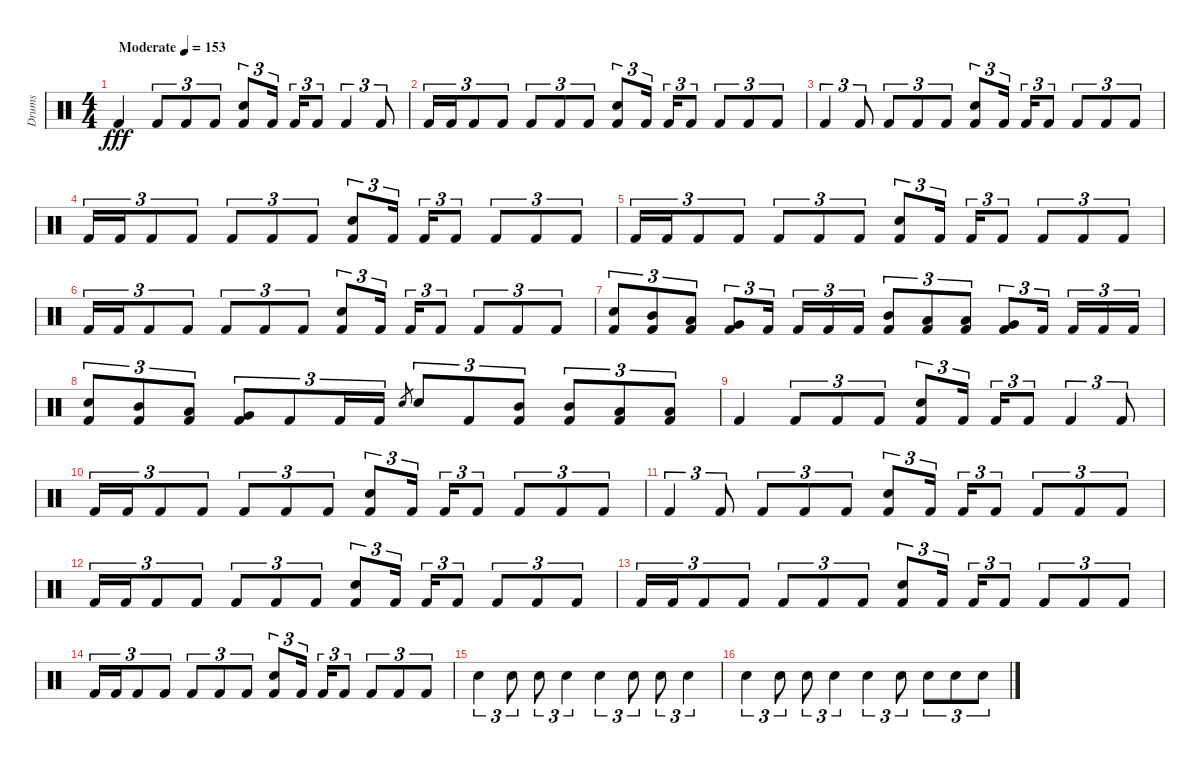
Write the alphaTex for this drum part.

\track ("Drums" "Drums") {instrument percussion}
\staff {score}
\articulation defaults
\ts (4 4)
\tempo (153 "Moderate")
\clef neutral
\ks c "Kick (hit) 2".4{dy fff} "Kick (hit) 2".8{tu (3 2)} "Kick (hit) 2".8{tu (3 2)} "Kick (hit) 2".8{tu (3 2)}
("Electric Snare (hit)" "Kick (hit) 2").8{tu (3 2)} "Kick (hit) 2".16{tu (3 2) beam splitsecondary} "Kick (hit) 2".16{tu (3 2)} "Kick (hit) 2".8{tu (3 2)} "Kick (hit) 2".4{tu (3 2)} "Kick (hit) 2".8{tu (3 2)} |
"Kick (hit) 2".16{tu (3 2)} "Kick (hit) 2".16{tu (3 2)} "Kick (hit) 2".8{tu (3 2)} "Kick (hit) 2".8{tu (3 2)} "Kick (hit) 2".8{tu (3 2)} "Kick (hit) 2".8{tu (3 2)} "Kick (hit) 2".8{tu (3 2)} ("Electric Snare (hit)" "Kick (hit) 2").8{tu (3 2)} "Kick (hit) 2".16{tu (3 2) beam splitsecondary} "Kick (hit) 2".16{tu (3 2)} "Kick (hit) 2".8{tu (3 2)} "Kick (hit) 2".8{tu (3 2)} "Kick (hit) 2".8{tu (3 2)} "Kick (hit) 2".8{tu (3 2)} |
"Kick (hit) 2".4{tu (3 2)} "Kick (hit) 2".8{tu (3 2)} "Kick (hit) 2".8{tu (3 2)} "Kick (hit) 2".8{tu (3 2)} "Kick (hit) 2".8{tu (3 2)} ("Electric Snare (hit)" "Kick (hit) 2").8{tu (3 2)} "Kick (hit) 2".16{tu (3 2) beam splitsecondary} "Kick (hit) 2".16{tu (3 2)} "Kick (hit) 2".8{tu (3 2)} "Kick (hit) 2".8{tu (3 2)} "Kick (hit) 2".8{tu (3 2)} "Kick (hit) 2".8{tu (3 2)} |
"Kick (hit) 2".16{tu (3 2)} "Kick (hit) 2".16{tu (3 2)} "Kick (hit) 2".8{tu (3 2)} "Kick (hit) 2".8{tu (3 2)} "Kick (hit) 2".8{tu (3 2)} "Kick (hit) 2".8{tu (3 2)} "Kick (hit) 2".8{tu (3 2)} ("Electric Snare (hit)" "Kick (hit) 2").8{tu (3 2)} "Kick (hit) 2".16{tu (3 2) beam splitsecondary} "Kick (hit) 2".16{tu (3 2)} "Kick (hit) 2".8{tu (3 2)} "Kick (hit) 2".8{tu (3 2)} "Kick (hit) 2".8{tu (3 2)} "Kick (hit) 2".8{tu (3 2)} |
"Kick (hit) 2".16{tu (3 2)} "Kick (hit) 2".16{tu (3 2)} "Kick (hit) 2".8{tu (3 2)} "Kick (hit) 2".8{tu (3 2)} "Kick (hit) 2".8{tu (3 2)} "Kick (hit) 2".8{tu (3 2)} "Kick (hit) 2".8{tu (3 2)} ("Electric Snare (hit)" "Kick (hit) 2").8{tu (3 2)} "Kick (hit) 2".16{tu (3 2) beam splitsecondary} "Kick (hit) 2".16{tu (3 2)} "Kick (hit) 2".8{tu (3 2)} "Kick (hit) 2".8{tu (3 2)} "Kick (hit) 2".8{tu (3 2)} "Kick (hit) 2".8{tu (3 2)} |
"Kick (hit) 2".16{tu (3 2)} "Kick (hit) 2".16{tu (3 2)} "Kick (hit) 2".8{tu (3 2)} "Kick (hit) 2".8{tu (3 2)} "Kick (hit) 2".8{tu (3 2)} "Kick (hit) 2".8{tu (3 2)} "Kick (hit) 2".8{tu (3 2)} ("Electric Snare (hit)" "Kick (hit) 2").8{tu (3 2)} "Kick (hit) 2".16{tu (3 2) beam splitsecondary} "Kick (hit) 2".16{tu (3 2)} "Kick (hit) 2".8{tu (3 2)} "Kick (hit) 2".8{tu (3 2)} "Kick (hit) 2".8{tu (3 2)} "Kick (hit) 2".8{tu (3 2)} |
("Electric Snare (hit)" "Kick (hit) 2").8{tu (3 2)} ("Mid Tom (hit)" "Kick (hit) 2").8{tu (3 2)} ("Low Tom (hit)" "Kick (hit) 2").8{tu (3 2)} ("Very Low Tom (hit)" "Kick (hit) 2").8{tu (3 2)} "Kick (hit) 2".16{tu (3 2) beam splitsecondary} "Kick (hit) 2".16{tu (3 2)} "Kick (hit) 2".16{tu (3 2)} "Kick (hit) 2".16{tu (3 2)} ("Mid Tom (hit)" "Kick (hit) 2").8{tu (3 2)} ("Low Tom (hit)" "Kick (hit) 2").8{tu (3 2)} ("Low Tom (hit)" "Kick (hit) 2").8{tu (3 2)} ("Very Low Tom (hit)" "Kick (hit) 2").8{tu (3 2)} "Kick (hit) 2".16{tu (3 2) beam splitsecondary} "Kick (hit) 2".16{tu (3 2)} "Kick (hit) 2".16{tu (3 2)} "Kick (hit) 2".16{tu (3 2)} |
("Electric Snare (hit)" "Kick (hit) 2").8{tu (3 2)} ("Mid Tom (hit)" "Kick (hit) 2").8{tu (3 2)} ("Low Tom (hit)" "Kick (hit) 2").8{tu (3 2)} ("Very Low Tom (hit)" "Kick (hit) 2").8{tu (3 2)} "Kick (hit) 2".8{tu (3 2)} "Kick (hit) 2".16{tu (3 2)} "Kick (hit) 2".16{tu (3 2)} "Electric Snare (hit)".8{gr} "Electric Snare (hit)".8{tu (3 2)} "Kick (hit) 2".8{tu (3 2)} ("Mid Tom (hit)" "Kick (hit) 2").8{tu (3 2)} ("Mid Tom (hit)" "Kick (hit) 2").8{tu (3 2)} ("Low Tom (hit)" "Kick (hit) 2").8{tu (3 2)} ("Low Tom (hit)" "Kick (hit) 2").8{tu (3 2)} |
"Kick (hit) 2".4 "Kick (hit) 2".8{tu (3 2)} "Kick (hit) 2".8{tu (3 2)} "Kick (hit) 2".8{tu (3 2)} ("Electric Snare (hit)" "Kick (hit) 2").8{tu (3 2)} "Kick (hit) 2".16{tu (3 2) beam splitsecondary} "Kick (hit) 2".16{tu (3 2)} "Kick (hit) 2".8{tu (3 2)} "Kick (hit) 2".4{tu (3 2)} "Kick (hit) 2".8{tu (3 2)} |
"Kick (hit) 2".16{tu (3 2)} "Kick (hit) 2".16{tu (3 2)} "Kick (hit) 2".8{tu (3 2)} "Kick (hit) 2".8{tu (3 2)} "Kick (hit) 2".8{tu (3 2)} "Kick (hit) 2".8{tu (3 2)} "Kick (hit) 2".8{tu (3 2)} ("Electric Snare (hit)" "Kick (hit) 2").8{tu (3 2)} "Kick (hit) 2".16{tu (3 2) beam splitsecondary} "Kick (hit) 2".16{tu (3 2)} "Kick (hit) 2".8{tu (3 2)} "Kick (hit) 2".8{tu (3 2)} "Kick (hit) 2".8{tu (3 2)} "Kick (hit) 2".8{tu (3 2)} |
"Kick (hit) 2".4{tu (3 2)} "Kick (hit) 2".8{tu (3 2)} "Kick (hit) 2".8{tu (3 2)} "Kick (hit) 2".8{tu (3 2)} "Kick (hit) 2".8{tu (3 2)} ("Electric Snare (hit)" "Kick (hit) 2").8{tu (3 2)} "Kick (hit) 2".16{tu (3 2) beam splitsecondary} "Kick (hit) 2".16{tu (3 2)} "Kick (hit) 2".8{tu (3 2)} "Kick (hit) 2".8{tu (3 2)} "Kick (hit) 2".8{tu (3 2)} "Kick (hit) 2".8{tu (3 2)} |
"Kick (hit) 2".16{tu (3 2)} "Kick (hit) 2".16{tu (3 2)} "Kick (hit) 2".8{tu (3 2)} "Kick (hit) 2".8{tu (3 2)} "Kick (hit) 2".8{tu (3 2)} "Kick (hit) 2".8{tu (3 2)} "Kick (hit) 2".8{tu (3 2)} ("Electric Snare (hit)" "Kick (hit) 2").8{tu (3 2)} "Kick (hit) 2".16{tu (3 2) beam splitsecondary} "Kick (hit) 2".16{tu (3 2)} "Kick (hit) 2".8{tu (3 2)} "Kick (hit) 2".8{tu (3 2)} "Kick (hit) 2".8{tu (3 2)} "Kick (hit) 2".8{tu (3 2)} |
"Kick (hit) 2".16{tu (3 2)} "Kick (hit) 2".16{tu (3 2)} "Kick (hit) 2".8{tu (3 2)} "Kick (hit) 2".8{tu (3 2)} "Kick (hit) 2".8{tu (3 2)} "Kick (hit) 2".8{tu (3 2)} "Kick (hit) 2".8{tu (3 2)} ("Electric Snare (hit)" "Kick (hit) 2").8{tu (3 2)} "Kick (hit) 2".16{tu (3 2) beam splitsecondary} "Kick (hit) 2".16{tu (3 2)} "Kick (hit) 2".8{tu (3 2)} "Kick (hit) 2".8{tu (3 2)} "Kick (hit) 2".8{tu (3 2)} "Kick (hit) 2".8{tu (3 2)} |
"Kick (hit) 2".16{tu (3 2)} "Kick (hit) 2".16{tu (3 2)} "Kick (hit) 2".8{tu (3 2)} "Kick (hit) 2".8{tu (3 2)} "Kick (hit) 2".8{tu (3 2)} "Kick (hit) 2".8{tu (3 2)} "Kick (hit) 2".8{tu (3 2)} ("Electric Snare (hit)" "Kick (hit) 2").8{tu (3 2)} "Kick (hit) 2".16{tu (3 2) beam splitsecondary} "Kick (hit) 2".16{tu (3 2)} "Kick (hit) 2".8{tu (3 2)} "Kick (hit) 2".8{tu (3 2)} "Kick (hit) 2".8{tu (3 2)} "Kick (hit) 2".8{tu (3 2)} |
"Electric Snare (hit)".4{tu (3 2)} "Electric Snare (hit)".8{tu (3 2)} "Electric Snare (hit)".8{tu (3 2)} "Electric Snare (hit)".4{tu (3 2)} "Electric Snare (hit)".4{tu (3 2)} "Electric Snare (hit)".8{tu (3 2)} "Electric Snare (hit)".8{tu (3 2)} "Electric Snare (hit)".4{tu (3 2)} |
"Electric Snare (hit)".4{tu (3 2)} "Electric Snare (hit)".8{tu (3 2)} "Electric Snare (hit)".8{tu (3 2)} "Electric Snare (hit)".4{tu (3 2)} "Electric Snare (hit)".4{tu (3 2)} "Electric Snare (hit)".8{tu (3 2)} "Electric Snare (hit)".8{tu (3 2)} "Electric Snare (hit)".8{tu (3 2)} "Electric Snare (hit)".8{tu (3 2)}
